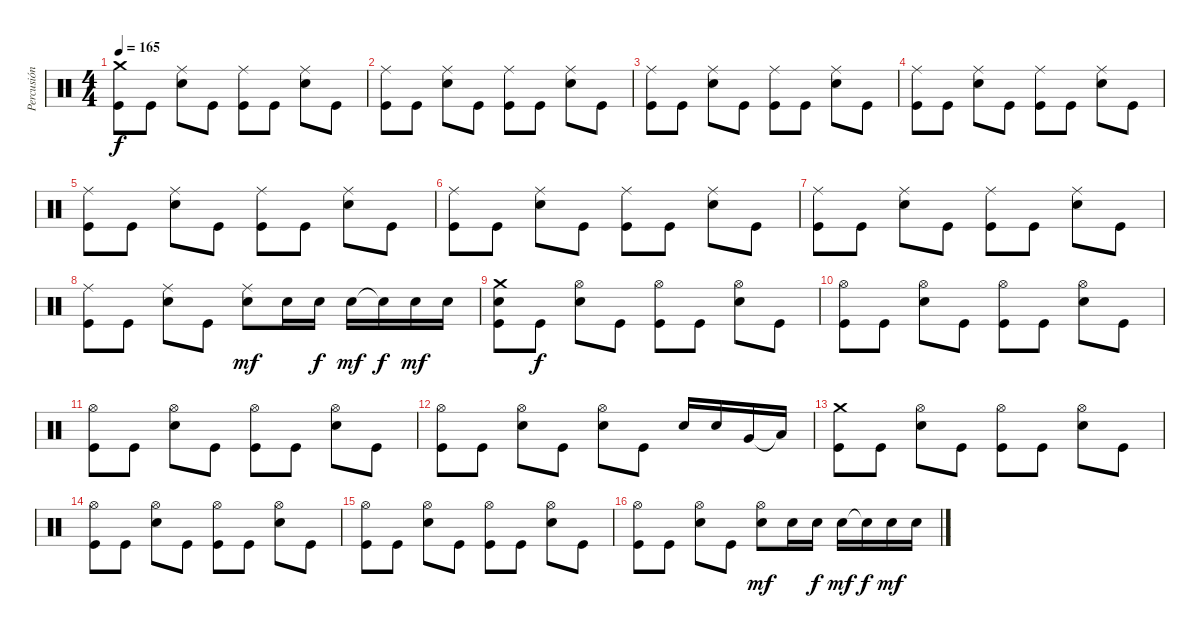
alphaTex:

\track ("Percusión" "Percusión") {instrument percussion}
\staff {score}
\articulation defaults
\ts (4 4)
\tempo 165
\clef neutral
\ks c
("Crash medium (hit)" "Kick (hit)").8{dy f} "Kick (hit)".8 ("Ride (middle)" "Electric Snare (hit)").8 "Kick (hit)".8 ("Ride (middle)" "Kick (hit)").8 "Kick (hit)".8 ("Ride (middle)" "Electric Snare (hit)").8 "Kick (hit)".8 |
("Ride (middle)" "Kick (hit)").8 "Kick (hit)".8 ("Ride (middle)" "Electric Snare (hit)").8 "Kick (hit)".8 ("Ride (middle)" "Kick (hit)").8 "Kick (hit)".8 ("Ride (middle)" "Electric Snare (hit)").8 "Kick (hit)".8 |
("Ride (middle)" "Kick (hit)").8 "Kick (hit)".8 ("Ride (middle)" "Electric Snare (hit)").8 "Kick (hit)".8 ("Ride (middle)" "Kick (hit)").8 "Kick (hit)".8 ("Ride (middle)" "Electric Snare (hit)").8 "Kick (hit)".8 |
("Ride (middle)" "Kick (hit)").8 "Kick (hit)".8 ("Ride (middle)" "Electric Snare (hit)").8 "Kick (hit)".8 ("Ride (middle)" "Kick (hit)").8 "Kick (hit)".8 ("Ride (middle)" "Electric Snare (hit)").8 "Kick (hit)".8 |
("Ride (middle)" "Kick (hit)").8 "Kick (hit)".8 ("Ride (middle)" "Electric Snare (hit)").8 "Kick (hit)".8 ("Ride (middle)" "Kick (hit)").8 "Kick (hit)".8 ("Ride (middle)" "Electric Snare (hit)").8 "Kick (hit)".8 |
("Ride (middle)" "Kick (hit)").8 "Kick (hit)".8 ("Ride (middle)" "Electric Snare (hit)").8 "Kick (hit)".8 ("Ride (middle)" "Kick (hit)").8 "Kick (hit)".8 ("Ride (middle)" "Electric Snare (hit)").8 "Kick (hit)".8 |
("Ride (middle)" "Kick (hit)").8 "Kick (hit)".8 ("Ride (middle)" "Electric Snare (hit)").8 "Kick (hit)".8 ("Ride (middle)" "Kick (hit)").8 "Kick (hit)".8 ("Ride (middle)" "Electric Snare (hit)").8 "Kick (hit)".8 |
("Ride (middle)" "Kick (hit)").8 "Kick (hit)".8 ("Ride (middle)" "Electric Snare (hit)").8 "Kick (hit)".8 ("Ride (middle)" "Electric Snare (hit)").8{dy mf} "Electric Snare (hit)".16 "Electric Snare (hit)".16{dy f} "Electric Snare (hit)".16{dy mf} "Snare (hit)"{t}.16{dy f} "Electric Snare (hit)".16{dy mf} "Electric Snare (hit)".16 |
("Crash medium (hit)" "Electric Snare (hit)" "Kick (hit)").8 "Kick (hit)".8{dy f} ("Hi-Hat (open)" "Electric Snare (hit)").8 "Kick (hit)".8 ("Hi-Hat (open)" "Kick (hit)").8 "Kick (hit)".8 ("Hi-Hat (open)" "Electric Snare (hit)").8 "Kick (hit)".8 |
("Hi-Hat (open)" "Kick (hit)").8 "Kick (hit)".8 ("Hi-Hat (open)" "Electric Snare (hit)").8 "Kick (hit)".8 ("Hi-Hat (open)" "Kick (hit)").8 "Kick (hit)".8 ("Hi-Hat (open)" "Electric Snare (hit)").8 "Kick (hit)".8 |
("Hi-Hat (open)" "Kick (hit)").8 "Kick (hit)".8 ("Hi-Hat (open)" "Electric Snare (hit)").8 "Kick (hit)".8 ("Hi-Hat (open)" "Kick (hit)").8 "Kick (hit)".8 ("Hi-Hat (open)" "Electric Snare (hit)").8 "Kick (hit)".8 |
("Hi-Hat (open)" "Kick (hit)").8 "Kick (hit)".8 ("Hi-Hat (open)" "Electric Snare (hit)").8 "Kick (hit)".8 ("Hi-Hat (open)" "Electric Snare (hit)").8 "Kick (hit)".8 "Electric Snare (hit)".16 "Electric Snare (hit)".16 "Very Low Tom (hit)".16 "Low Floor Tom (hit)"{t}.16 |
("Crash medium (hit)" "Kick (hit)").8 "Kick (hit)".8 ("Hi-Hat (open)" "Electric Snare (hit)").8 "Kick (hit)".8 ("Hi-Hat (open)" "Kick (hit)").8 "Kick (hit)".8 ("Hi-Hat (open)" "Electric Snare (hit)").8 "Kick (hit)".8 |
("Hi-Hat (open)" "Kick (hit)").8 "Kick (hit)".8 ("Hi-Hat (open)" "Electric Snare (hit)").8 "Kick (hit)".8 ("Hi-Hat (open)" "Kick (hit)").8 "Kick (hit)".8 ("Hi-Hat (open)" "Electric Snare (hit)").8 "Kick (hit)".8 |
("Hi-Hat (open)" "Kick (hit)").8 "Kick (hit)".8 ("Hi-Hat (open)" "Electric Snare (hit)").8 "Kick (hit)".8 ("Hi-Hat (open)" "Kick (hit)").8 "Kick (hit)".8 ("Hi-Hat (open)" "Electric Snare (hit)").8 "Kick (hit)".8 |
("Hi-Hat (open)" "Kick (hit)").8 "Kick (hit)".8 ("Hi-Hat (open)" "Electric Snare (hit)").8 "Kick (hit)".8 ("Hi-Hat (open)" "Electric Snare (hit)").8{dy mf} "Electric Snare (hit)".16 "Electric Snare (hit)".16{dy f} "Electric Snare (hit)".16{dy mf} "Snare (hit)"{t}.16{dy f} "Electric Snare (hit)".16{dy mf} "Electric Snare (hit)".16
